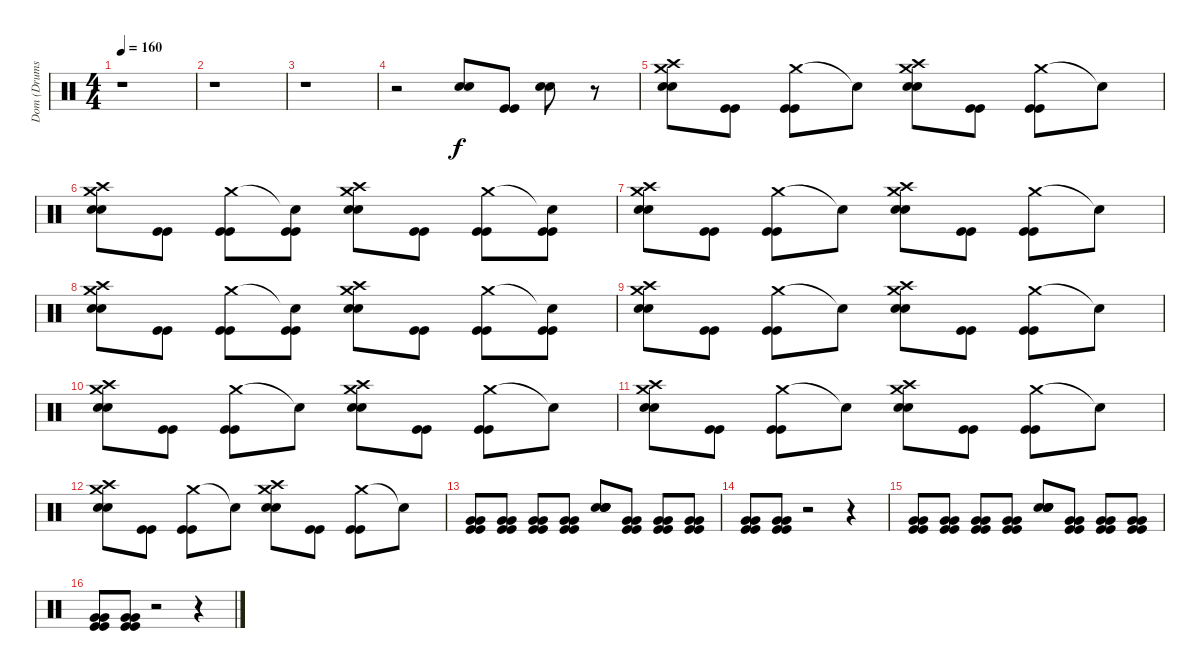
\track ("Dom (Drums)" "Dom (Drums") {instrument percussion}
\staff {score}
\articulation defaults
\ts (4 4)
\tempo 160
\clef neutral
\ks c
r.1{dy f} |
r.1 |
r.1 |
r.2 ("Snare (hit) 2" "Snare (hit) 2").8 ("Kick (hit)" "Kick (hit)").8 ("Snare (hit) 2" "Snare (hit) 2").8 r.8 |
("Crash medium (hit)" "Crash high (hit)" "Snare (hit) 2" "Snare (hit) 2").8 ("Kick (hit)" "Kick (hit)").8 ("Crash medium (hit)" "Kick (hit)" "Kick (hit)").8 "Snare (hit)"{t}.8 ("Crash medium (hit)" "Crash high (hit)" "Snare (hit) 2" "Snare (hit) 2").8 ("Kick (hit)" "Kick (hit)").8 ("Crash medium (hit)" "Kick (hit)" "Kick (hit)").8 "Snare (hit)"{t}.8 |
("Crash medium (hit)" "Crash high (hit)" "Snare (hit) 2" "Snare (hit) 2").8 ("Kick (hit)" "Kick (hit)").8 ("Crash medium (hit)" "Kick (hit)" "Kick (hit)").8 ("Snare (hit)"{t} "Kick (hit)" "Kick (hit)").8 ("Crash medium (hit)" "Crash high (hit)" "Snare (hit) 2" "Snare (hit) 2").8 ("Kick (hit)" "Kick (hit)").8 ("Crash medium (hit)" "Kick (hit)" "Kick (hit)").8 ("Snare (hit)"{t} "Kick (hit)" "Kick (hit)").8 |
("Crash medium (hit)" "Crash high (hit)" "Snare (hit) 2" "Snare (hit) 2").8 ("Kick (hit)" "Kick (hit)").8 ("Crash medium (hit)" "Kick (hit)" "Kick (hit)").8 "Snare (hit)"{t}.8 ("Crash medium (hit)" "Crash high (hit)" "Snare (hit) 2" "Snare (hit) 2").8 ("Kick (hit)" "Kick (hit)").8 ("Crash medium (hit)" "Kick (hit)" "Kick (hit)").8 "Snare (hit)"{t}.8 |
("Crash medium (hit)" "Crash high (hit)" "Snare (hit) 2" "Snare (hit) 2").8 ("Kick (hit)" "Kick (hit)").8 ("Crash medium (hit)" "Kick (hit)" "Kick (hit)").8 ("Snare (hit)"{t} "Kick (hit)" "Kick (hit)").8 ("Crash medium (hit)" "Crash high (hit)" "Snare (hit) 2" "Snare (hit) 2").8 ("Kick (hit)" "Kick (hit)").8 ("Crash medium (hit)" "Kick (hit)" "Kick (hit)").8 ("Snare (hit)"{t} "Kick (hit)" "Kick (hit)").8 |
("Crash medium (hit)" "Crash high (hit)" "Snare (hit) 2" "Snare (hit) 2").8 ("Kick (hit)" "Kick (hit)").8 ("Crash medium (hit)" "Kick (hit)" "Kick (hit)").8 "Snare (hit)"{t}.8 ("Crash medium (hit)" "Crash high (hit)" "Snare (hit) 2" "Snare (hit) 2").8 ("Kick (hit)" "Kick (hit)").8 ("Crash medium (hit)" "Kick (hit)" "Kick (hit)").8 "Snare (hit)"{t}.8 |
("Crash medium (hit)" "Crash high (hit)" "Snare (hit) 2" "Snare (hit) 2").8 ("Kick (hit)" "Kick (hit)").8 ("Crash medium (hit)" "Kick (hit)" "Kick (hit)").8 "Snare (hit)"{t}.8 ("Crash medium (hit)" "Crash high (hit)" "Snare (hit) 2" "Snare (hit) 2").8 ("Kick (hit)" "Kick (hit)").8 ("Crash medium (hit)" "Kick (hit)" "Kick (hit)").8 "Snare (hit)"{t}.8 |
("Crash medium (hit)" "Crash high (hit)" "Snare (hit) 2" "Snare (hit) 2").8 ("Kick (hit)" "Kick (hit)").8 ("Crash medium (hit)" "Kick (hit)" "Kick (hit)").8 "Snare (hit)"{t}.8 ("Crash medium (hit)" "Crash high (hit)" "Snare (hit) 2" "Snare (hit) 2").8 ("Kick (hit)" "Kick (hit)").8 ("Crash medium (hit)" "Kick (hit)" "Kick (hit)").8 "Snare (hit)"{t}.8 |
("Crash medium (hit)" "Crash high (hit)" "Snare (hit) 2" "Snare (hit) 2").8 ("Kick (hit)" "Kick (hit)").8 ("Crash medium (hit)" "Kick (hit)" "Kick (hit)").8 "Snare (hit)"{t}.8 ("Crash medium (hit)" "Crash high (hit)" "Snare (hit) 2" "Snare (hit) 2").8 ("Kick (hit)" "Kick (hit)").8 ("Crash medium (hit)" "Kick (hit)" "Kick (hit)").8 "Snare (hit)"{t}.8 |
("Very Low Tom (hit)" "Very Low Tom (hit)" "Kick (hit)" "Kick (hit)").8{volume 10} ("Very Low Tom (hit)" "Very Low Tom (hit)" "Kick (hit)" "Kick (hit)").8 ("Very Low Tom (hit)" "Very Low Tom (hit)" "Kick (hit)" "Kick (hit)").8 ("Very Low Tom (hit)" "Very Low Tom (hit)" "Kick (hit)" "Kick (hit)").8 ("Snare (hit) 2" "Snare (hit) 2" "Snare (hit) 2" "Snare (hit) 2").8 ("Very Low Tom (hit)" "Very Low Tom (hit)" "Kick (hit)" "Kick (hit)").8 ("Very Low Tom (hit)" "Very Low Tom (hit)" "Kick (hit)" "Kick (hit)").8 ("Very Low Tom (hit)" "Very Low Tom (hit)" "Kick (hit)" "Kick (hit)").8 |
("Very Low Tom (hit)" "Very Low Tom (hit)" "Kick (hit)" "Kick (hit)").8 ("Very Low Tom (hit)" "Very Low Tom (hit)" "Kick (hit)" "Kick (hit)").8 r.2 r.4 |
("Very Low Tom (hit)" "Very Low Tom (hit)" "Kick (hit)" "Kick (hit)").8 ("Very Low Tom (hit)" "Very Low Tom (hit)" "Kick (hit)" "Kick (hit)").8 ("Very Low Tom (hit)" "Very Low Tom (hit)" "Kick (hit)" "Kick (hit)").8 ("Very Low Tom (hit)" "Very Low Tom (hit)" "Kick (hit)" "Kick (hit)").8 ("Snare (hit) 2" "Snare (hit) 2" "Snare (hit) 2" "Snare (hit) 2").8 ("Very Low Tom (hit)" "Very Low Tom (hit)" "Kick (hit)" "Kick (hit)").8 ("Very Low Tom (hit)" "Very Low Tom (hit)" "Kick (hit)" "Kick (hit)").8 ("Very Low Tom (hit)" "Very Low Tom (hit)" "Kick (hit)" "Kick (hit)").8 |
("Very Low Tom (hit)" "Very Low Tom (hit)" "Kick (hit)" "Kick (hit)").8 ("Very Low Tom (hit)" "Very Low Tom (hit)" "Kick (hit)" "Kick (hit)").8 r.2 r.4
